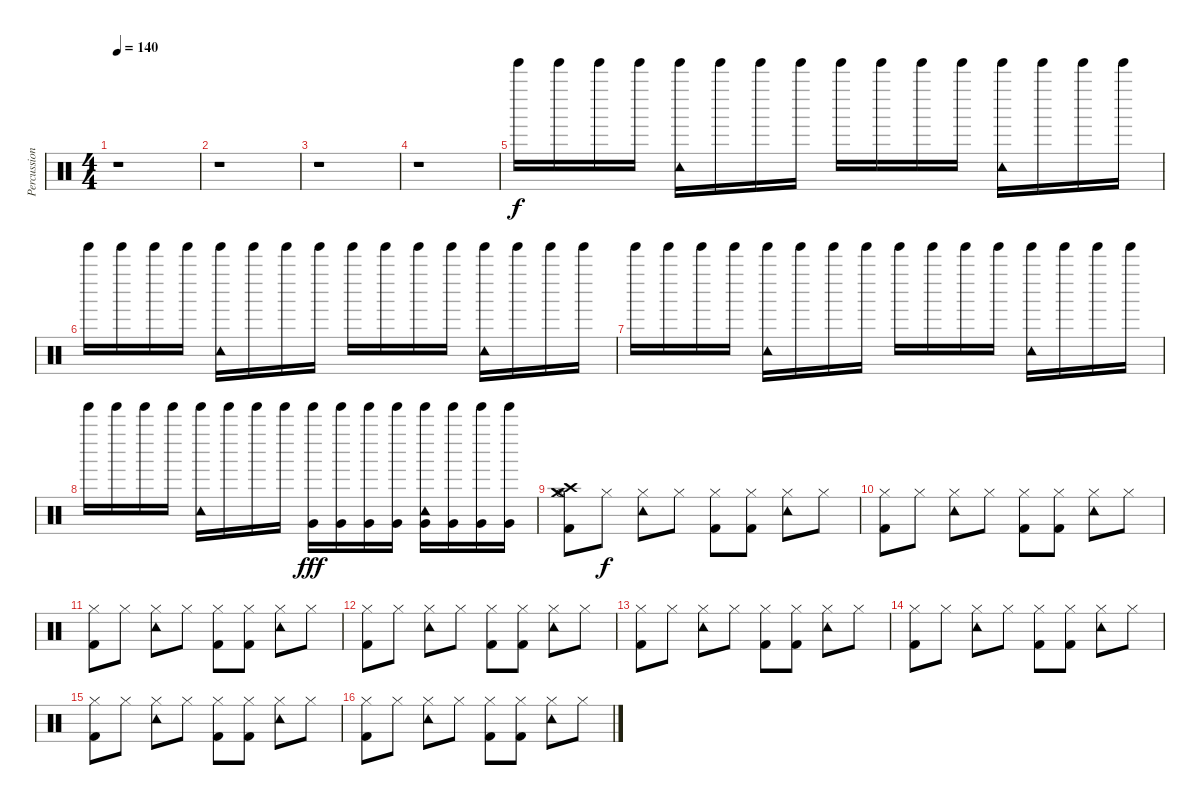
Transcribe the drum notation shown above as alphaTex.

\track ("Percussion" "Percussion") {instrument percussion}
\staff {score}
\articulation defaults
\ts (4 4)
\tempo 140
\clef neutral
\ks c
r.1{dy f} |
r.1 |
r.1 |
r.1 |
"Tinkle Bell (hit)".16 "Tinkle Bell (hit)".16 "Tinkle Bell (hit)".16 "Tinkle Bell (hit)".16 ("Tinkle Bell (hit)" "Tambourine (hit)").16 "Tinkle Bell (hit)".16 "Tinkle Bell (hit)".16 "Tinkle Bell (hit)".16 "Tinkle Bell (hit)".16 "Tinkle Bell (hit)".16 "Tinkle Bell (hit)".16 "Tinkle Bell (hit)".16 ("Tinkle Bell (hit)" "Tambourine (hit)").16 "Tinkle Bell (hit)".16 "Tinkle Bell (hit)".16 "Tinkle Bell (hit)".16 |
"Tinkle Bell (hit)".16 "Tinkle Bell (hit)".16 "Tinkle Bell (hit)".16 "Tinkle Bell (hit)".16 ("Tinkle Bell (hit)" "Tambourine (hit)").16 "Tinkle Bell (hit)".16 "Tinkle Bell (hit)".16 "Tinkle Bell (hit)".16 "Tinkle Bell (hit)".16 "Tinkle Bell (hit)".16 "Tinkle Bell (hit)".16 "Tinkle Bell (hit)".16 ("Tinkle Bell (hit)" "Tambourine (hit)").16 "Tinkle Bell (hit)".16 "Tinkle Bell (hit)".16 "Tinkle Bell (hit)".16 |
"Tinkle Bell (hit)".16 "Tinkle Bell (hit)".16 "Tinkle Bell (hit)".16 "Tinkle Bell (hit)".16 ("Tinkle Bell (hit)" "Tambourine (hit)").16 "Tinkle Bell (hit)".16 "Tinkle Bell (hit)".16 "Tinkle Bell (hit)".16 "Tinkle Bell (hit)".16 "Tinkle Bell (hit)".16 "Tinkle Bell (hit)".16 "Tinkle Bell (hit)".16 ("Tinkle Bell (hit)" "Tambourine (hit)").16 "Tinkle Bell (hit)".16 "Tinkle Bell (hit)".16 "Tinkle Bell (hit)".16 |
"Tinkle Bell (hit)".16 "Tinkle Bell (hit)".16 "Tinkle Bell (hit)".16 "Tinkle Bell (hit)".16 ("Tinkle Bell (hit)" "Tambourine (hit)").16 "Tinkle Bell (hit)".16 "Tinkle Bell (hit)".16 "Tinkle Bell (hit)".16 ("Tinkle Bell (hit)" "Very Low Tom (hit)").16{dy fff} ("Tinkle Bell (hit)" "Very Low Tom (hit)").16 ("Tinkle Bell (hit)" "Very Low Tom (hit)").16 ("Tinkle Bell (hit)" "Very Low Tom (hit)").16 ("Tinkle Bell (hit)" "Tambourine (hit)" "Very Low Tom (hit)").16 ("Tinkle Bell (hit)" "Very Low Tom (hit)").16 ("Tinkle Bell (hit)" "Very Low Tom (hit)").16 ("Tinkle Bell (hit)" "Very Low Tom (hit)").16 |
("Hi-Hat (open)" "Crash high (hit)" "Crash medium (hit)" "Kick (hit) 2").8 "Hi-Hat (closed)".8{dy f} ("Hi-Hat (closed)" "Tambourine (hit)").8 "Hi-Hat (closed)".8 ("Hi-Hat (closed)" "Kick (hit) 2").8 ("Hi-Hat (closed)" "Kick (hit) 2").8 ("Hi-Hat (closed)" "Tambourine (hit)").8 "Hi-Hat (closed)".8 |
("Hi-Hat (closed)" "Kick (hit) 2").8 "Hi-Hat (closed)".8 ("Hi-Hat (closed)" "Tambourine (hit)").8 "Hi-Hat (closed)".8 ("Hi-Hat (closed)" "Kick (hit) 2").8 ("Hi-Hat (closed)" "Kick (hit) 2").8 ("Hi-Hat (closed)" "Tambourine (hit)").8 "Hi-Hat (closed)".8 |
("Hi-Hat (closed)" "Kick (hit) 2").8 "Hi-Hat (closed)".8 ("Hi-Hat (closed)" "Tambourine (hit)").8 "Hi-Hat (closed)".8 ("Hi-Hat (closed)" "Kick (hit) 2").8 ("Hi-Hat (closed)" "Kick (hit) 2").8 ("Hi-Hat (closed)" "Tambourine (hit)").8 "Hi-Hat (closed)".8 |
("Hi-Hat (closed)" "Kick (hit) 2").8 "Hi-Hat (closed)".8 ("Hi-Hat (closed)" "Tambourine (hit)").8 "Hi-Hat (closed)".8 ("Hi-Hat (closed)" "Kick (hit) 2").8 ("Hi-Hat (closed)" "Kick (hit) 2").8 ("Hi-Hat (closed)" "Tambourine (hit)").8 "Hi-Hat (closed)".8 |
("Hi-Hat (closed)" "Kick (hit) 2").8 "Hi-Hat (closed)".8 ("Hi-Hat (closed)" "Tambourine (hit)").8 "Hi-Hat (closed)".8 ("Hi-Hat (closed)" "Kick (hit) 2").8 ("Hi-Hat (closed)" "Kick (hit) 2").8 ("Hi-Hat (closed)" "Tambourine (hit)").8 "Hi-Hat (closed)".8 |
("Hi-Hat (closed)" "Kick (hit) 2").8 "Hi-Hat (closed)".8 ("Hi-Hat (closed)" "Tambourine (hit)").8 "Hi-Hat (closed)".8 ("Hi-Hat (closed)" "Kick (hit) 2").8 ("Hi-Hat (closed)" "Kick (hit) 2").8 ("Hi-Hat (closed)" "Tambourine (hit)").8 "Hi-Hat (closed)".8 |
("Hi-Hat (closed)" "Kick (hit) 2").8 "Hi-Hat (closed)".8 ("Hi-Hat (closed)" "Tambourine (hit)").8 "Hi-Hat (closed)".8 ("Hi-Hat (closed)" "Kick (hit) 2").8 ("Hi-Hat (closed)" "Kick (hit) 2").8 ("Hi-Hat (closed)" "Tambourine (hit)").8 "Hi-Hat (closed)".8 |
("Hi-Hat (closed)" "Kick (hit) 2").8 "Hi-Hat (closed)".8 ("Hi-Hat (closed)" "Tambourine (hit)").8 "Hi-Hat (closed)".8 ("Hi-Hat (closed)" "Kick (hit) 2").8 ("Hi-Hat (closed)" "Kick (hit) 2").8 ("Hi-Hat (closed)" "Tambourine (hit)").8 "Hi-Hat (closed)".8
